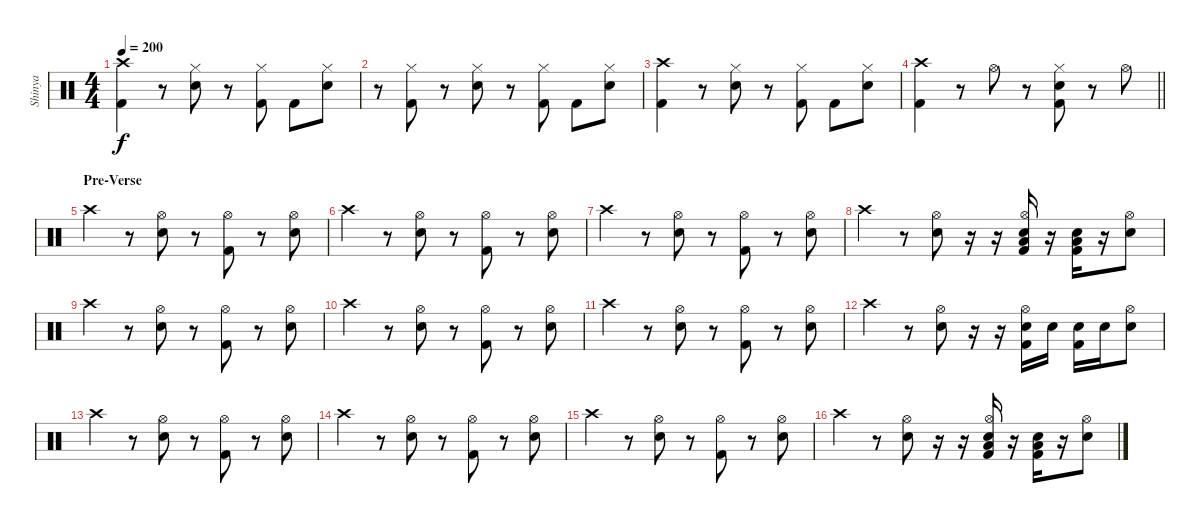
\track ("Shinya" "Shinya") {instrument percussion}
\staff {score}
\articulation defaults
\ts (4 4)
\tempo 200
\clef neutral
\ks c
("Kick (hit) 2" "Crash high (hit)").4{dy f} r.8 ("Electric Snare (hit)" "Hi-Hat (closed)").8 r.8 ("Kick (hit) 2" "Hi-Hat (closed)").8 "Kick (hit) 2".8 ("Electric Snare (hit)" "Hi-Hat (closed)").8 |
r.8 ("Kick (hit) 2" "Hi-Hat (closed)").8 r.8 ("Electric Snare (hit)" "Hi-Hat (closed)").8 r.8 ("Kick (hit) 2" "Hi-Hat (closed)").8 "Kick (hit) 2".8 ("Electric Snare (hit)" "Hi-Hat (closed)").8 |
("Kick (hit) 2" "Crash high (hit)").4 r.8 ("Electric Snare (hit)" "Hi-Hat (closed)").8 r.8 ("Kick (hit) 2" "Hi-Hat (closed)").8 "Kick (hit) 2".8 ("Electric Snare (hit)" "Hi-Hat (closed)").8 |
\barLineRight lightlight
("Kick (hit) 2" "Crash high (hit)").4 r.8 "Hi-Hat (open)".8 r.8 ("Electric Snare (hit)" "Kick (hit) 2" "Hi-Hat (closed)").8 r.8 "Hi-Hat (open)".8 |
\section ("" "Pre-Verse")
"Crash high (hit)".4 r.8 ("Hi-Hat (open)" "Electric Snare (hit)").8 r.8 ("Hi-Hat (open)" "Kick (hit) 2").8 r.8 ("Hi-Hat (open)" "Electric Snare (hit)").8 |
"Crash high (hit)".4 r.8 ("Hi-Hat (open)" "Electric Snare (hit)").8 r.8 ("Hi-Hat (open)" "Kick (hit) 2").8 r.8 ("Hi-Hat (open)" "Electric Snare (hit)").8 |
"Crash high (hit)".4 r.8 ("Hi-Hat (open)" "Electric Snare (hit)").8 r.8 ("Hi-Hat (open)" "Kick (hit) 2").8 r.8 ("Hi-Hat (open)" "Electric Snare (hit)").8 |
"Crash high (hit)".4 r.8 ("Hi-Hat (open)" "Electric Snare (hit)").8 r.16 r.16 ("Hi-Hat (open)" "Kick (hit) 2" "Electric Snare (hit)" "Low Tom (hit)").16 r.16 ("Kick (hit) 2" "Electric Snare (hit)" "Low Tom (hit)").16 r.16 ("Hi-Hat (open)" "Electric Snare (hit)").8 |
"Crash high (hit)".4 r.8 ("Hi-Hat (open)" "Electric Snare (hit)").8 r.8 ("Hi-Hat (open)" "Kick (hit) 2").8 r.8 ("Hi-Hat (open)" "Electric Snare (hit)").8 |
"Crash high (hit)".4 r.8 ("Hi-Hat (open)" "Electric Snare (hit)").8 r.8 ("Hi-Hat (open)" "Kick (hit) 2").8 r.8 ("Hi-Hat (open)" "Electric Snare (hit)").8 |
"Crash high (hit)".4 r.8 ("Hi-Hat (open)" "Electric Snare (hit)").8 r.8 ("Hi-Hat (open)" "Kick (hit) 2").8 r.8 ("Hi-Hat (open)" "Electric Snare (hit)").8 |
"Crash high (hit)".4 r.8 ("Hi-Hat (open)" "Electric Snare (hit)").8 r.16 r.16 ("Hi-Hat (open)" "Kick (hit) 2" "Electric Snare (hit)").16 "Electric Snare (hit)".16 ("Kick (hit) 2" "Electric Snare (hit)").16 "Electric Snare (hit)".16 ("Hi-Hat (open)" "Electric Snare (hit)").8 |
"Crash high (hit)".4 r.8 ("Hi-Hat (open)" "Electric Snare (hit)").8 r.8 ("Hi-Hat (open)" "Kick (hit) 2").8 r.8 ("Hi-Hat (open)" "Electric Snare (hit)").8 |
"Crash high (hit)".4 r.8 ("Hi-Hat (open)" "Electric Snare (hit)").8 r.8 ("Hi-Hat (open)" "Kick (hit) 2").8 r.8 ("Hi-Hat (open)" "Electric Snare (hit)").8 |
"Crash high (hit)".4 r.8 ("Hi-Hat (open)" "Electric Snare (hit)").8 r.8 ("Hi-Hat (open)" "Kick (hit) 2").8 r.8 ("Hi-Hat (open)" "Electric Snare (hit)").8 |
"Crash high (hit)".4 r.8 ("Hi-Hat (open)" "Electric Snare (hit)").8 r.16 r.16 ("Hi-Hat (open)" "Kick (hit) 2" "Electric Snare (hit)" "Low Tom (hit)").16 r.16 ("Kick (hit) 2" "Electric Snare (hit)" "Low Tom (hit)").16 r.16 ("Hi-Hat (open)" "Electric Snare (hit)").8
